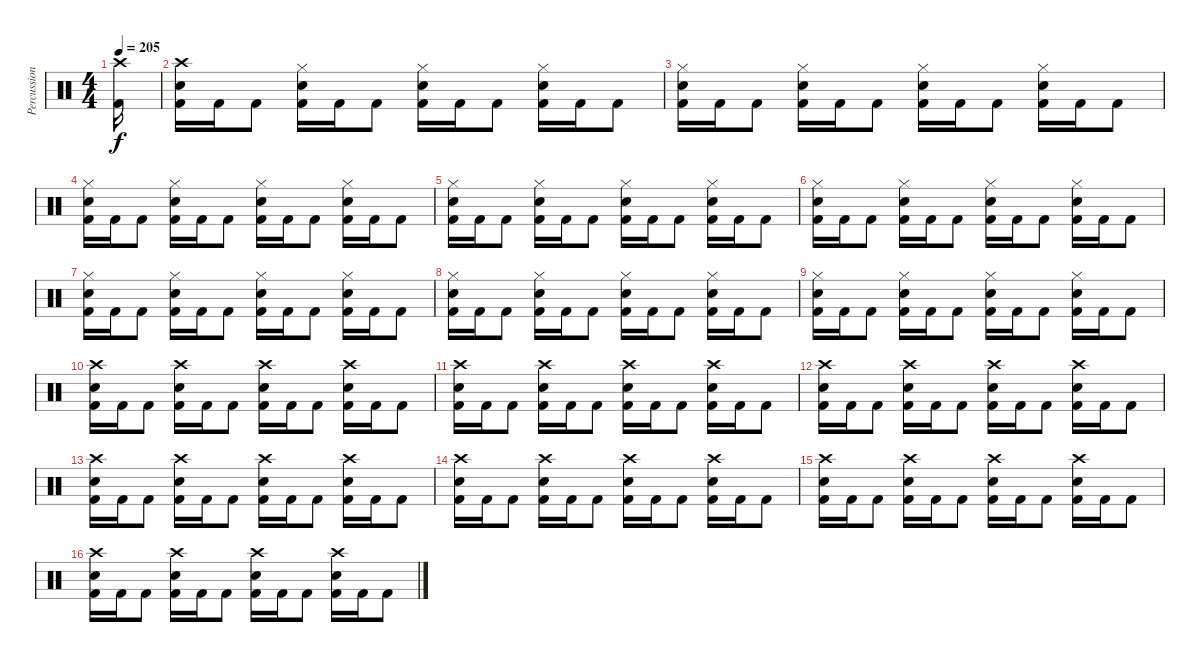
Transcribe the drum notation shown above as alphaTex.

\track ("Percussion" "Percussion") {instrument percussion}
\staff {score}
\articulation defaults
\ts (4 4)
\tempo 205
\clef neutral
\ks c
("Crash high (hit)" "Kick (hit) 2").16{dy f} |
("Crash high (hit)" "Electric Snare (hit)" "Kick (hit) 2").16 "Kick (hit) 2".16 "Kick (hit) 2".8 ("Hi-Hat (closed)" "Electric Snare (hit)" "Kick (hit) 2").16 "Kick (hit) 2".16 "Kick (hit) 2".8 ("Hi-Hat (closed)" "Electric Snare (hit)" "Kick (hit) 2").16 "Kick (hit) 2".16 "Kick (hit) 2".8 ("Hi-Hat (closed)" "Electric Snare (hit)" "Kick (hit) 2").16 "Kick (hit) 2".16 "Kick (hit) 2".8 |
("Hi-Hat (closed)" "Electric Snare (hit)" "Kick (hit) 2").16 "Kick (hit) 2".16 "Kick (hit) 2".8 ("Hi-Hat (closed)" "Electric Snare (hit)" "Kick (hit) 2").16 "Kick (hit) 2".16 "Kick (hit) 2".8 ("Hi-Hat (closed)" "Electric Snare (hit)" "Kick (hit) 2").16 "Kick (hit) 2".16 "Kick (hit) 2".8 ("Hi-Hat (closed)" "Electric Snare (hit)" "Kick (hit) 2").16 "Kick (hit) 2".16 "Kick (hit) 2".8 |
("Hi-Hat (closed)" "Electric Snare (hit)" "Kick (hit) 2").16 "Kick (hit) 2".16 "Kick (hit) 2".8 ("Hi-Hat (closed)" "Electric Snare (hit)" "Kick (hit) 2").16 "Kick (hit) 2".16 "Kick (hit) 2".8 ("Hi-Hat (closed)" "Electric Snare (hit)" "Kick (hit) 2").16 "Kick (hit) 2".16 "Kick (hit) 2".8 ("Hi-Hat (closed)" "Electric Snare (hit)" "Kick (hit) 2").16 "Kick (hit) 2".16 "Kick (hit) 2".8 |
("Hi-Hat (closed)" "Electric Snare (hit)" "Kick (hit) 2").16 "Kick (hit) 2".16 "Kick (hit) 2".8 ("Hi-Hat (closed)" "Electric Snare (hit)" "Kick (hit) 2").16 "Kick (hit) 2".16 "Kick (hit) 2".8 ("Hi-Hat (closed)" "Electric Snare (hit)" "Kick (hit) 2").16 "Kick (hit) 2".16 "Kick (hit) 2".8 ("Hi-Hat (closed)" "Electric Snare (hit)" "Kick (hit) 2").16 "Kick (hit) 2".16 "Kick (hit) 2".8 |
("Hi-Hat (closed)" "Electric Snare (hit)" "Kick (hit) 2").16 "Kick (hit) 2".16 "Kick (hit) 2".8 ("Hi-Hat (closed)" "Electric Snare (hit)" "Kick (hit) 2").16 "Kick (hit) 2".16 "Kick (hit) 2".8 ("Hi-Hat (closed)" "Electric Snare (hit)" "Kick (hit) 2").16 "Kick (hit) 2".16 "Kick (hit) 2".8 ("Hi-Hat (closed)" "Electric Snare (hit)" "Kick (hit) 2").16 "Kick (hit) 2".16 "Kick (hit) 2".8 |
("Hi-Hat (closed)" "Electric Snare (hit)" "Kick (hit) 2").16 "Kick (hit) 2".16 "Kick (hit) 2".8 ("Hi-Hat (closed)" "Electric Snare (hit)" "Kick (hit) 2").16 "Kick (hit) 2".16 "Kick (hit) 2".8 ("Hi-Hat (closed)" "Electric Snare (hit)" "Kick (hit) 2").16 "Kick (hit) 2".16 "Kick (hit) 2".8 ("Hi-Hat (closed)" "Electric Snare (hit)" "Kick (hit) 2").16 "Kick (hit) 2".16 "Kick (hit) 2".8 |
("Hi-Hat (closed)" "Electric Snare (hit)" "Kick (hit) 2").16 "Kick (hit) 2".16 "Kick (hit) 2".8 ("Hi-Hat (closed)" "Electric Snare (hit)" "Kick (hit) 2").16 "Kick (hit) 2".16 "Kick (hit) 2".8 ("Hi-Hat (closed)" "Electric Snare (hit)" "Kick (hit) 2").16 "Kick (hit) 2".16 "Kick (hit) 2".8 ("Hi-Hat (closed)" "Electric Snare (hit)" "Kick (hit) 2").16 "Kick (hit) 2".16 "Kick (hit) 2".8 |
("Hi-Hat (closed)" "Electric Snare (hit)" "Kick (hit) 2").16 "Kick (hit) 2".16 "Kick (hit) 2".8 ("Hi-Hat (closed)" "Electric Snare (hit)" "Kick (hit) 2").16 "Kick (hit) 2".16 "Kick (hit) 2".8 ("Hi-Hat (closed)" "Electric Snare (hit)" "Kick (hit) 2").16 "Kick (hit) 2".16 "Kick (hit) 2".8 ("Hi-Hat (closed)" "Electric Snare (hit)" "Kick (hit) 2").16 "Kick (hit) 2".16 "Kick (hit) 2".8 |
("Crash high (hit)" "Electric Snare (hit)" "Kick (hit) 2").16 "Kick (hit) 2".16 "Kick (hit) 2".8 ("Crash high (hit)" "Electric Snare (hit)" "Kick (hit) 2").16 "Kick (hit) 2".16 "Kick (hit) 2".8 ("Crash high (hit)" "Electric Snare (hit)" "Kick (hit) 2").16 "Kick (hit) 2".16 "Kick (hit) 2".8 ("Crash high (hit)" "Electric Snare (hit)" "Kick (hit) 2").16 "Kick (hit) 2".16 "Kick (hit) 2".8 |
("Crash high (hit)" "Electric Snare (hit)" "Kick (hit) 2").16 "Kick (hit) 2".16 "Kick (hit) 2".8 ("Crash high (hit)" "Electric Snare (hit)" "Kick (hit) 2").16 "Kick (hit) 2".16 "Kick (hit) 2".8 ("Crash high (hit)" "Electric Snare (hit)" "Kick (hit) 2").16 "Kick (hit) 2".16 "Kick (hit) 2".8 ("Crash high (hit)" "Electric Snare (hit)" "Kick (hit) 2").16 "Kick (hit) 2".16 "Kick (hit) 2".8 |
("Crash high (hit)" "Electric Snare (hit)" "Kick (hit) 2").16 "Kick (hit) 2".16 "Kick (hit) 2".8 ("Crash high (hit)" "Electric Snare (hit)" "Kick (hit) 2").16 "Kick (hit) 2".16 "Kick (hit) 2".8 ("Crash high (hit)" "Electric Snare (hit)" "Kick (hit) 2").16 "Kick (hit) 2".16 "Kick (hit) 2".8 ("Crash high (hit)" "Electric Snare (hit)" "Kick (hit) 2").16 "Kick (hit) 2".16 "Kick (hit) 2".8 |
("Crash high (hit)" "Electric Snare (hit)" "Kick (hit) 2").16 "Kick (hit) 2".16 "Kick (hit) 2".8 ("Crash high (hit)" "Electric Snare (hit)" "Kick (hit) 2").16 "Kick (hit) 2".16 "Kick (hit) 2".8 ("Crash high (hit)" "Electric Snare (hit)" "Kick (hit) 2").16 "Kick (hit) 2".16 "Kick (hit) 2".8 ("Crash high (hit)" "Electric Snare (hit)" "Kick (hit) 2").16 "Kick (hit) 2".16 "Kick (hit) 2".8 |
("Crash high (hit)" "Electric Snare (hit)" "Kick (hit) 2").16 "Kick (hit) 2".16 "Kick (hit) 2".8 ("Crash high (hit)" "Electric Snare (hit)" "Kick (hit) 2").16 "Kick (hit) 2".16 "Kick (hit) 2".8 ("Crash high (hit)" "Electric Snare (hit)" "Kick (hit) 2").16 "Kick (hit) 2".16 "Kick (hit) 2".8 ("Crash high (hit)" "Electric Snare (hit)" "Kick (hit) 2").16 "Kick (hit) 2".16 "Kick (hit) 2".8 |
("Crash high (hit)" "Electric Snare (hit)" "Kick (hit) 2").16 "Kick (hit) 2".16 "Kick (hit) 2".8 ("Crash high (hit)" "Electric Snare (hit)" "Kick (hit) 2").16 "Kick (hit) 2".16 "Kick (hit) 2".8 ("Crash high (hit)" "Electric Snare (hit)" "Kick (hit) 2").16 "Kick (hit) 2".16 "Kick (hit) 2".8 ("Crash high (hit)" "Electric Snare (hit)" "Kick (hit) 2").16 "Kick (hit) 2".16 "Kick (hit) 2".8 |
("Crash high (hit)" "Electric Snare (hit)" "Kick (hit) 2").16 "Kick (hit) 2".16 "Kick (hit) 2".8 ("Crash high (hit)" "Electric Snare (hit)" "Kick (hit) 2").16 "Kick (hit) 2".16 "Kick (hit) 2".8 ("Crash high (hit)" "Electric Snare (hit)" "Kick (hit) 2").16 "Kick (hit) 2".16 "Kick (hit) 2".8 ("Crash high (hit)" "Electric Snare (hit)" "Kick (hit) 2").16 "Kick (hit) 2".16 "Kick (hit) 2".8
